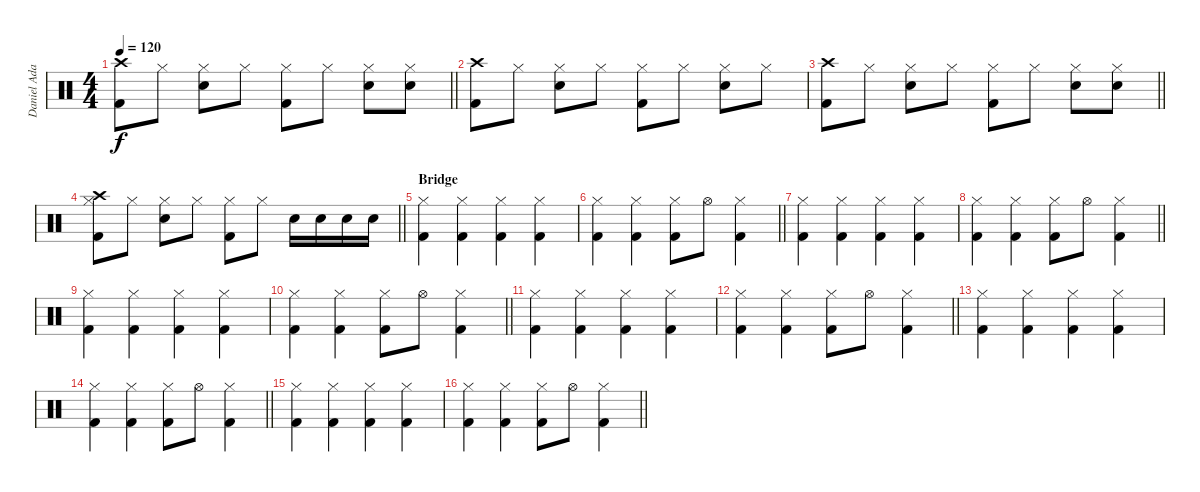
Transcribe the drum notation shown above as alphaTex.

\track ("Daniel Adair" "Daniel Ada") {instrument percussion}
\staff {score}
\articulation defaults
\ts (4 4)
\tempo 120
\clef neutral
\barLineRight lightlight
\ks c
("Crash high (hit)" "Kick (hit) 2").8{dy f} "Hi-Hat (closed)".8 ("Hi-Hat (closed)" "Electric Snare (hit)").8 "Hi-Hat (closed)".8 ("Hi-Hat (closed)" "Kick (hit) 2").8 "Hi-Hat (closed)".8 ("Hi-Hat (closed)" "Electric Snare (hit)").8 ("Hi-Hat (closed)" "Electric Snare (hit)").8 |
("Crash high (hit)" "Kick (hit) 2").8 "Hi-Hat (closed)".8 ("Hi-Hat (closed)" "Electric Snare (hit)").8 "Hi-Hat (closed)".8 ("Hi-Hat (closed)" "Kick (hit) 2").8 "Hi-Hat (closed)".8 ("Hi-Hat (closed)" "Electric Snare (hit)").8 "Hi-Hat (closed)".8 |
\barLineRight lightlight
("Crash high (hit)" "Kick (hit) 2").8 "Hi-Hat (closed)".8 ("Hi-Hat (closed)" "Electric Snare (hit)").8 "Hi-Hat (closed)".8 ("Hi-Hat (closed)" "Kick (hit) 2").8 "Hi-Hat (closed)".8 ("Hi-Hat (closed)" "Electric Snare (hit)").8 ("Hi-Hat (closed)" "Electric Snare (hit)").8 |
\barLineRight lightlight
("Crash high (hit)" "Hi-Hat (closed)" "Kick (hit) 2").8 "Hi-Hat (closed)".8 ("Hi-Hat (closed)" "Electric Snare (hit)").8 "Hi-Hat (closed)".8 ("Hi-Hat (closed)" "Kick (hit) 2").8 "Hi-Hat (closed)".8 "Electric Snare (hit)".16 "Electric Snare (hit)".16 "Electric Snare (hit)".16 "Electric Snare (hit)".16 |
\section ("" "Bridge")
("Hi-Hat (closed)" "Kick (hit) 2").4 ("Hi-Hat (closed)" "Kick (hit) 2").4 ("Hi-Hat (closed)" "Kick (hit) 2").4 ("Hi-Hat (closed)" "Kick (hit) 2").4 |
\barLineRight lightlight
("Hi-Hat (closed)" "Kick (hit) 2").4 ("Hi-Hat (closed)" "Kick (hit) 2").4 ("Hi-Hat (closed)" "Kick (hit) 2").8 "Hi-Hat (open)".8 ("Hi-Hat (closed)" "Kick (hit) 2").4 |
("Hi-Hat (closed)" "Kick (hit) 2").4 ("Hi-Hat (closed)" "Kick (hit) 2").4 ("Hi-Hat (closed)" "Kick (hit) 2").4 ("Hi-Hat (closed)" "Kick (hit) 2").4 |
\barLineRight lightlight
("Hi-Hat (closed)" "Kick (hit) 2").4 ("Hi-Hat (closed)" "Kick (hit) 2").4 ("Hi-Hat (closed)" "Kick (hit) 2").8 "Hi-Hat (open)".8 ("Hi-Hat (closed)" "Kick (hit) 2").4 |
("Hi-Hat (closed)" "Kick (hit) 2").4 ("Hi-Hat (closed)" "Kick (hit) 2").4 ("Hi-Hat (closed)" "Kick (hit) 2").4 ("Hi-Hat (closed)" "Kick (hit) 2").4 |
\barLineRight lightlight
("Hi-Hat (closed)" "Kick (hit) 2").4 ("Hi-Hat (closed)" "Kick (hit) 2").4 ("Hi-Hat (closed)" "Kick (hit) 2").8 "Hi-Hat (open)".8 ("Hi-Hat (closed)" "Kick (hit) 2").4 |
("Hi-Hat (closed)" "Kick (hit) 2").4 ("Hi-Hat (closed)" "Kick (hit) 2").4 ("Hi-Hat (closed)" "Kick (hit) 2").4 ("Hi-Hat (closed)" "Kick (hit) 2").4 |
\barLineRight lightlight
("Hi-Hat (closed)" "Kick (hit) 2").4 ("Hi-Hat (closed)" "Kick (hit) 2").4 ("Hi-Hat (closed)" "Kick (hit) 2").8 "Hi-Hat (open)".8 ("Hi-Hat (closed)" "Kick (hit) 2").4 |
("Hi-Hat (closed)" "Kick (hit) 2").4 ("Hi-Hat (closed)" "Kick (hit) 2").4 ("Hi-Hat (closed)" "Kick (hit) 2").4 ("Hi-Hat (closed)" "Kick (hit) 2").4 |
\barLineRight lightlight
("Hi-Hat (closed)" "Kick (hit) 2").4 ("Hi-Hat (closed)" "Kick (hit) 2").4 ("Hi-Hat (closed)" "Kick (hit) 2").8 "Hi-Hat (open)".8 ("Hi-Hat (closed)" "Kick (hit) 2").4 |
("Hi-Hat (closed)" "Kick (hit) 2").4 ("Hi-Hat (closed)" "Kick (hit) 2").4 ("Hi-Hat (closed)" "Kick (hit) 2").4 ("Hi-Hat (closed)" "Kick (hit) 2").4 |
\barLineRight lightlight
("Hi-Hat (closed)" "Kick (hit) 2").4 ("Hi-Hat (closed)" "Kick (hit) 2").4 ("Hi-Hat (closed)" "Kick (hit) 2").8 "Hi-Hat (open)".8 ("Hi-Hat (closed)" "Kick (hit) 2").4
